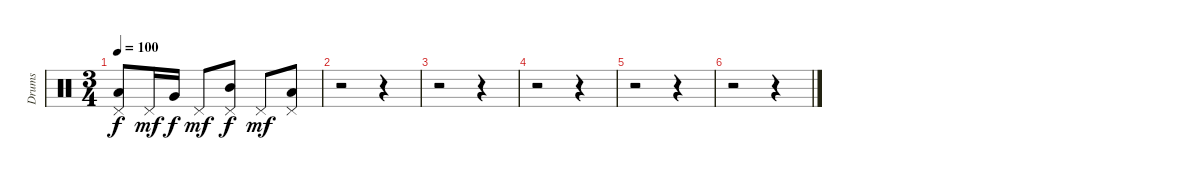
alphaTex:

\track ("Drums" "Drums") {instrument percussion}
\staff {score}
\articulation defaults
\ts (3 4)
\tempo 100
\clef neutral
\ks c
("Low Floor Tom (hit)" "Pedal Hi-Hat (hit)").8{dy f} "Pedal Hi-Hat (hit)".16{dy mf} "Very Low Tom (hit)".16{dy f} "Pedal Hi-Hat (hit)".8{dy mf} ("Mid Tom (hit)" "Pedal Hi-Hat (hit)").8{dy f} "Pedal Hi-Hat (hit)".8{dy mf} ("Low Floor Tom (hit)" "Pedal Hi-Hat (hit)").8 |
r.2 r.4 |
r.2 r.4 |
r.2 r.4 |
r.2 r.4 |
r.2 r.4
